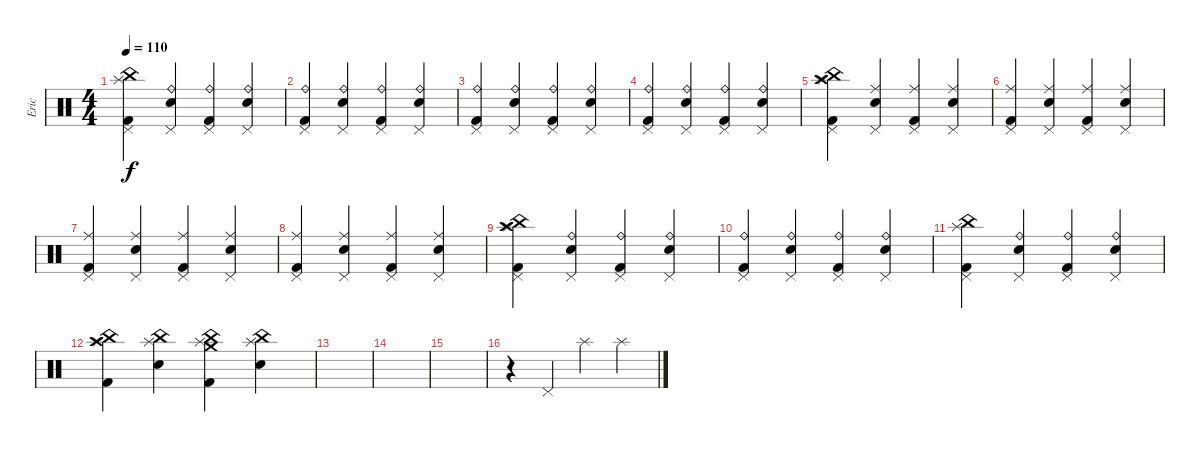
\track ("Eric" "Eric") {instrument percussion}
\staff {score}
\articulation defaults
\ts (4 4)
\tempo 110
\clef neutral
\ks c
("Splash (hit)" "China (hit)" "Pedal Hi-Hat (hit)" "Kick (hit) 2").4{dy f} ("Ride (bell)" "Pedal Hi-Hat (hit)" "Snare (hit) 2").4 ("Ride (bell)" "Pedal Hi-Hat (hit)" "Kick (hit) 2").4 ("Ride (bell)" "Pedal Hi-Hat (hit)" "Snare (hit) 2").4 |
("Ride (bell)" "Pedal Hi-Hat (hit)" "Kick (hit) 2").4 ("Ride (bell)" "Pedal Hi-Hat (hit)" "Snare (hit) 2").4 ("Ride (bell)" "Pedal Hi-Hat (hit)" "Kick (hit) 2").4 ("Ride (bell)" "Pedal Hi-Hat (hit)" "Snare (hit) 2").4 |
("Ride (bell)" "Pedal Hi-Hat (hit)" "Kick (hit) 2").4 ("Ride (bell)" "Pedal Hi-Hat (hit)" "Snare (hit) 2").4 ("Ride (bell)" "Pedal Hi-Hat (hit)" "Kick (hit) 2").4 ("Ride (bell)" "Pedal Hi-Hat (hit)" "Snare (hit) 2").4 |
("Ride (bell)" "Pedal Hi-Hat (hit)" "Kick (hit) 2").4 ("Ride (bell)" "Pedal Hi-Hat (hit)" "Snare (hit) 2").4 ("Ride (bell)" "Pedal Hi-Hat (hit)" "Kick (hit) 2").4 ("Ride (bell)" "Pedal Hi-Hat (hit)" "Snare (hit) 2").4 |
("Crash high (hit)" "China (hit)" "Splash (hit)" "Pedal Hi-Hat (hit)" "Kick (hit) 2").4 ("Ride (middle)" "Pedal Hi-Hat (hit)" "Snare (hit) 2").4 ("Ride (middle)" "Pedal Hi-Hat (hit)" "Kick (hit) 2").4 ("Ride (middle)" "Pedal Hi-Hat (hit)" "Snare (hit) 2").4 |
("Ride (middle)" "Pedal Hi-Hat (hit)" "Kick (hit) 2").4 ("Ride (middle)" "Pedal Hi-Hat (hit)" "Snare (hit) 2").4 ("Ride (middle)" "Pedal Hi-Hat (hit)" "Kick (hit) 2").4 ("Ride (middle)" "Pedal Hi-Hat (hit)" "Snare (hit) 2").4 |
("Ride (middle)" "Pedal Hi-Hat (hit)" "Kick (hit) 2").4 ("Ride (middle)" "Pedal Hi-Hat (hit)" "Snare (hit) 2").4 ("Ride (middle)" "Pedal Hi-Hat (hit)" "Kick (hit) 2").4 ("Ride (middle)" "Pedal Hi-Hat (hit)" "Snare (hit) 2").4 |
("Ride (middle)" "Pedal Hi-Hat (hit)" "Kick (hit) 2").4 ("Ride (middle)" "Pedal Hi-Hat (hit)" "Snare (hit) 2").4 ("Ride (middle)" "Pedal Hi-Hat (hit)" "Kick (hit) 2").4 ("Ride (middle)" "Pedal Hi-Hat (hit)" "Snare (hit) 2").4 |
("China (hit)" "Splash (hit)" "Crash high (hit)" "Pedal Hi-Hat (hit)" "Kick (hit) 2").4 ("Ride (bell)" "Pedal Hi-Hat (hit)" "Snare (hit) 2").4 ("Ride (bell)" "Pedal Hi-Hat (hit)" "Kick (hit) 2").4 ("Ride (bell)" "Pedal Hi-Hat (hit)" "Snare (hit) 2").4 |
("Ride (bell)" "Pedal Hi-Hat (hit)" "Kick (hit) 2").4 ("Ride (bell)" "Pedal Hi-Hat (hit)" "Snare (hit) 2").4 ("Ride (bell)" "Pedal Hi-Hat (hit)" "Kick (hit) 2").4 ("Ride (bell)" "Pedal Hi-Hat (hit)" "Snare (hit) 2").4 |
("China (hit)" "Splash (hit)" "Pedal Hi-Hat (hit)" "Kick (hit) 2").4 ("Ride (bell)" "Pedal Hi-Hat (hit)" "Snare (hit) 2").4 ("Ride (bell)" "Pedal Hi-Hat (hit)" "Kick (hit) 2").4 ("Ride (bell)" "Pedal Hi-Hat (hit)" "Snare (hit) 2").4 |
("Crash high (hit)" "China (hit)" "Splash (hit)" "Kick (hit) 2").4 ("China (hit)" "Splash (hit)" "Snare (hit) 2").4 ("Crash medium (hit)" "China (hit)" "Splash (hit)" "Kick (hit) 2").4 ("China (hit)" "Splash (hit)" "Snare (hit) 2").4 |
|
|
|
r.4 "Pedal Hi-Hat (hit)".4 "Splash (hit)".4 "Splash (hit)".4
